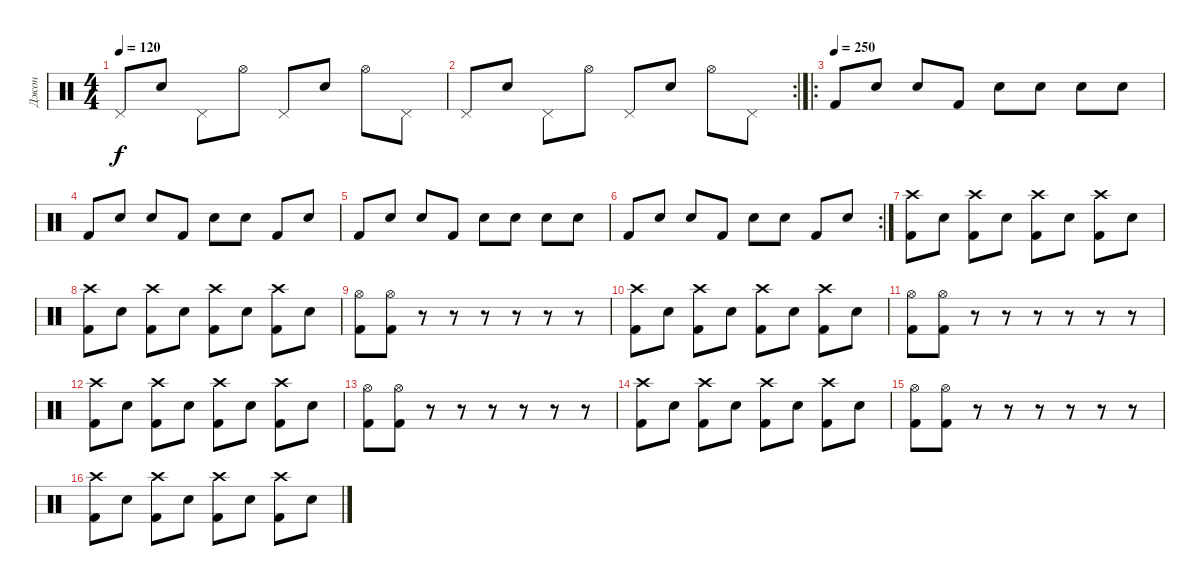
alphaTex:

\track ("Джон" "Джон") {instrument percussion}
\staff {score}
\articulation defaults
\ts (4 4)
\tempo 120
\clef neutral
\ks c "Pedal Hi-Hat (hit)".8{dy f} "Snare (hit)".8 "Pedal Hi-Hat (hit)".8 "Hi-Hat (open)".8 "Pedal Hi-Hat (hit)".8 "Snare (hit)".8 "Hi-Hat (open)".8 "Pedal Hi-Hat (hit)".8
|
\rc 2 "Pedal Hi-Hat (hit)".8 "Snare (hit)".8 "Pedal Hi-Hat (hit)".8 "Hi-Hat (open)".8 "Pedal Hi-Hat (hit)".8 "Snare (hit)".8 "Hi-Hat (open)".8 "Pedal Hi-Hat (hit)".8
|
\ro
\tempo (250)
"Kick (hit) 2".8 "Snare (hit)".8 "Snare (hit)".8 "Kick (hit) 2".8 "Electric Snare (hit)".8 "Snare (hit)".8 "Snare (hit)".8 "Electric Snare (hit)".8 |
"Kick (hit) 2".8 "Snare (hit)".8 "Snare (hit)".8 "Kick (hit) 2".8 "Electric Snare (hit)".8 "Snare (hit)".8 "Kick (hit) 2".8 "Snare (hit)".8 |
"Kick (hit) 2".8 "Snare (hit)".8 "Snare (hit)".8 "Kick (hit) 2".8 "Electric Snare (hit)".8 "Snare (hit)".8 "Snare (hit)".8 "Electric Snare (hit)".8 |
\rc 2 "Kick (hit) 2".8 "Snare (hit)".8 "Snare (hit)".8 "Kick (hit) 2".8 "Electric Snare (hit)".8 "Snare (hit)".8 "Kick (hit) 2".8 "Snare (hit)".8
|
("Kick (hit) 2" "Crash high (hit)").8 "Snare (hit)".8 ("Kick (hit) 2" "Crash high (hit)").8 "Snare (hit)".8 ("Kick (hit) 2" "Crash high (hit)").8 "Snare (hit)".8 ("Kick (hit) 2" "Crash high (hit)").8 "Snare (hit)".8 |
("Kick (hit) 2" "Crash high (hit)").8 "Snare (hit)".8 ("Kick (hit) 2" "Crash high (hit)").8 "Snare (hit)".8 ("Kick (hit) 2" "Crash high (hit)").8 "Snare (hit)".8 ("Kick (hit) 2" "Crash high (hit)").8 "Snare (hit)".8 |
("Kick (hit) 2" "Hi-Hat (open)").8 ("Kick (hit) 2" "Hi-Hat (open)").8 r.8 r.8 r.8 r.8 r.8 r.8 |
("Crash high (hit)" "Kick (hit) 2").8 "Snare (hit)".8 ("Crash high (hit)" "Kick (hit) 2").8 "Snare (hit)".8 ("Crash high (hit)" "Kick (hit) 2").8 "Snare (hit)".8 ("Crash high (hit)" "Kick (hit) 2").8 "Snare (hit)".8 |
("Kick (hit) 2" "Hi-Hat (open)").8 ("Kick (hit) 2" "Hi-Hat (open)").8 r.8 r.8 r.8 r.8 r.8 r.8 |
("Crash high (hit)" "Kick (hit) 2").8 "Snare (hit)".8 ("Crash high (hit)" "Kick (hit) 2").8 "Snare (hit)".8 ("Crash high (hit)" "Kick (hit) 2").8 "Snare (hit)".8 ("Crash high (hit)" "Kick (hit) 2").8 "Snare (hit)".8 |
("Kick (hit) 2" "Hi-Hat (open)").8 ("Kick (hit) 2" "Hi-Hat (open)").8 r.8 r.8 r.8 r.8 r.8 r.8 |
("Crash high (hit)" "Kick (hit) 2").8 "Snare (hit)".8 ("Crash high (hit)" "Kick (hit) 2").8 "Snare (hit)".8 ("Crash high (hit)" "Kick (hit) 2").8 "Snare (hit)".8 ("Crash high (hit)" "Kick (hit) 2").8 "Snare (hit)".8 |
("Kick (hit) 2" "Hi-Hat (open)").8 ("Kick (hit) 2" "Hi-Hat (open)").8 r.8 r.8 r.8 r.8 r.8 r.8 |
("Crash high (hit)" "Kick (hit) 2").8 "Snare (hit)".8 ("Crash high (hit)" "Kick (hit) 2").8 "Snare (hit)".8 ("Crash high (hit)" "Kick (hit) 2").8 "Snare (hit)".8 ("Crash high (hit)" "Kick (hit) 2").8 "Snare (hit)".8
